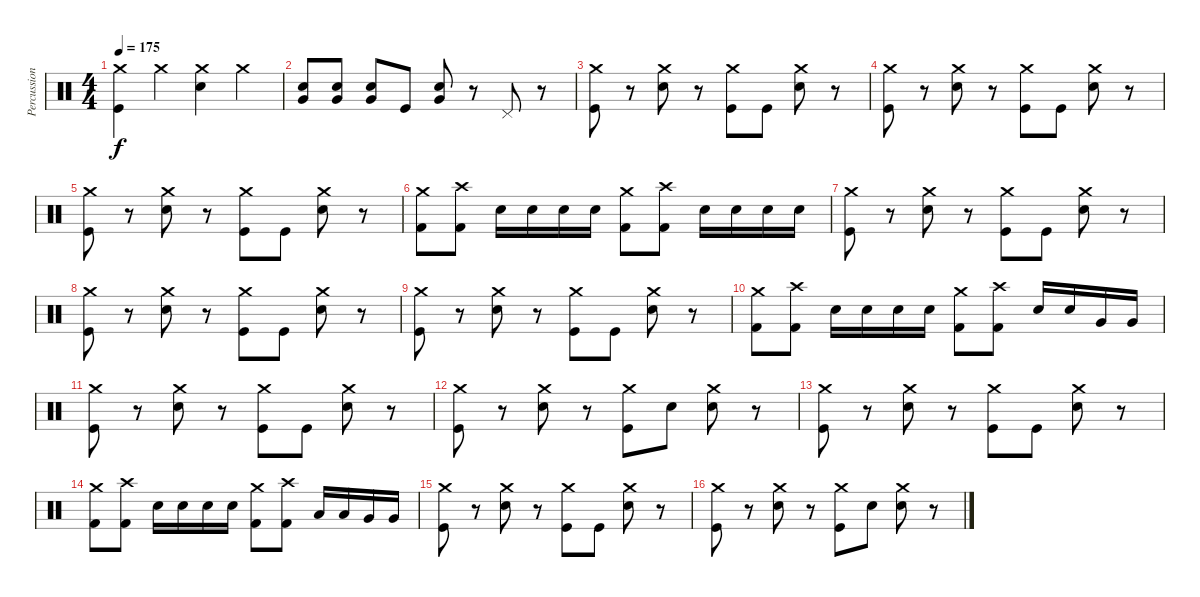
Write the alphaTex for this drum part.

\track ("Percussion" "Percussion") {instrument percussion}
\staff {score}
\articulation defaults
\ts (4 4)
\tempo 175
\clef neutral
\ks c
("Crash medium (hit)" "Kick (hit)").4{dy f} "Crash medium (hit)".4 ("Crash medium (hit)" "Electric Snare (hit)").4 "Crash medium (hit)".4 |
("Very Low Tom (hit)" "Electric Snare (hit)").8 ("Very Low Tom (hit)" "Electric Snare (hit)").8 ("Very Low Tom (hit)" "Electric Snare (hit)").8 "Kick (hit)".8 ("Very Low Tom (hit)" "Electric Snare (hit)").8 r.8 "Pedal Hi-Hat (hit)".8 r.8 |
("Crash medium (hit)" "Kick (hit)").8 r.8 ("Crash medium (hit)" "Electric Snare (hit)").8 r.8 ("Crash medium (hit)" "Kick (hit)").8 "Kick (hit)".8 ("Crash medium (hit)" "Electric Snare (hit)").8 r.8 |
("Crash medium (hit)" "Kick (hit)").8 r.8 ("Crash medium (hit)" "Electric Snare (hit)").8 r.8 ("Crash medium (hit)" "Kick (hit)").8 "Kick (hit)".8 ("Crash medium (hit)" "Electric Snare (hit)").8 r.8 |
("Crash medium (hit)" "Kick (hit)").8 r.8 ("Crash medium (hit)" "Electric Snare (hit)").8 r.8 ("Crash medium (hit)" "Kick (hit)").8 "Kick (hit)".8 ("Crash medium (hit)" "Electric Snare (hit)").8 r.8 |
("Crash medium (hit)" "Kick (hit) 2").8 ("Crash high (hit)" "Kick (hit) 2").8 "Electric Snare (hit)".16 "Electric Snare (hit)".16 "Electric Snare (hit)".16 "Electric Snare (hit)".16 ("Crash medium (hit)" "Kick (hit) 2").8 ("Crash high (hit)" "Kick (hit) 2").8 "Electric Snare (hit)".16 "Electric Snare (hit)".16 "Electric Snare (hit)".16 "Electric Snare (hit)".16 |
("Crash medium (hit)" "Kick (hit)").8 r.8 ("Crash medium (hit)" "Electric Snare (hit)").8 r.8 ("Crash medium (hit)" "Kick (hit)").8 "Kick (hit)".8 ("Crash medium (hit)" "Electric Snare (hit)").8 r.8 |
("Crash medium (hit)" "Kick (hit)").8 r.8 ("Crash medium (hit)" "Electric Snare (hit)").8 r.8 ("Crash medium (hit)" "Kick (hit)").8 "Kick (hit)".8 ("Crash medium (hit)" "Electric Snare (hit)").8 r.8 |
("Crash medium (hit)" "Kick (hit)").8 r.8 ("Crash medium (hit)" "Electric Snare (hit)").8 r.8 ("Crash medium (hit)" "Kick (hit)").8 "Kick (hit)".8 ("Crash medium (hit)" "Electric Snare (hit)").8 r.8 |
("Crash medium (hit)" "Kick (hit) 2").8 ("Crash high (hit)" "Kick (hit) 2").8 "Electric Snare (hit)".16 "Electric Snare (hit)".16 "Electric Snare (hit)".16 "Electric Snare (hit)".16 ("Crash medium (hit)" "Kick (hit) 2").8 ("Crash high (hit)" "Kick (hit) 2").8 "Electric Snare (hit)".16 "Electric Snare (hit)".16 "Very Low Tom (hit)".16 "Very Low Tom (hit)".16 |
("Crash medium (hit)" "Kick (hit)").8 r.8 ("Crash medium (hit)" "Electric Snare (hit)").8 r.8 ("Crash medium (hit)" "Kick (hit)").8 "Kick (hit)".8 ("Crash medium (hit)" "Electric Snare (hit)").8 r.8 |
("Crash medium (hit)" "Kick (hit)").8 r.8 ("Crash medium (hit)" "Electric Snare (hit)").8 r.8 ("Crash medium (hit)" "Kick (hit)").8 "Electric Snare (hit)".8 ("Crash medium (hit)" "Electric Snare (hit)").8 r.8 |
("Crash medium (hit)" "Kick (hit)").8 r.8 ("Crash medium (hit)" "Electric Snare (hit)").8 r.8 ("Crash medium (hit)" "Kick (hit)").8 "Kick (hit)".8 ("Crash medium (hit)" "Electric Snare (hit)").8 r.8 |
("Crash medium (hit)" "Kick (hit) 2").8 ("Crash high (hit)" "Kick (hit) 2").8 "Electric Snare (hit)".16 "Electric Snare (hit)".16 "Electric Snare (hit)".16 "Electric Snare (hit)".16 ("Crash medium (hit)" "Kick (hit) 2").8 ("Crash high (hit)" "Kick (hit) 2").8 "Low Tom (hit)".16 "Low Tom (hit)".16 "Very Low Tom (hit)".16 "Very Low Tom (hit)".16 |
("Crash medium (hit)" "Kick (hit)").8 r.8 ("Crash medium (hit)" "Electric Snare (hit)").8 r.8 ("Crash medium (hit)" "Kick (hit)").8 "Kick (hit)".8 ("Crash medium (hit)" "Electric Snare (hit)").8 r.8 |
("Crash medium (hit)" "Kick (hit)").8 r.8 ("Crash medium (hit)" "Electric Snare (hit)").8 r.8 ("Crash medium (hit)" "Kick (hit)").8 "Electric Snare (hit)".8 ("Crash medium (hit)" "Electric Snare (hit)").8 r.8
